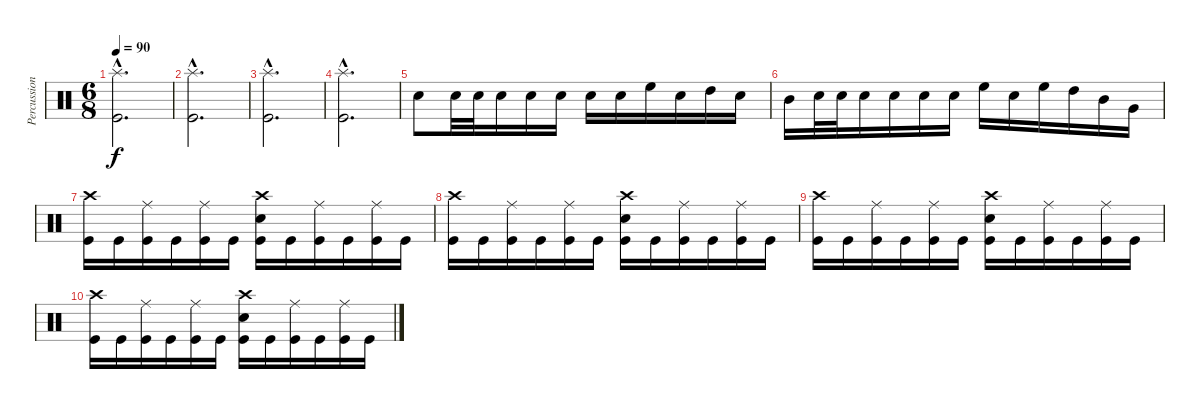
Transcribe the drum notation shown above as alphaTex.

\track ("Percussions" "Percussion") {instrument percussion}
\staff {score}
\articulation defaults
\ts (6 8)
\tempo 90
\clef neutral
\ks c
("Splash (hit)"{hac} "Kick (hit)"{hac}).2{d dy f} |
("Kick (hit)"{hac} "Splash (hit)"{hac}).2{d} |
("Kick (hit)"{hac} "Splash (hit)"{hac}).2{d} |
("Kick (hit)"{hac} "Splash (hit)"{hac}).2{d} |
"Electric Snare (hit)".8 "Electric Snare (hit)".32 "Electric Snare (hit)".32 "Electric Snare (hit)".16 "Electric Snare (hit)".16 "Electric Snare (hit)".16 "Electric Snare (hit)".16 "Electric Snare (hit)".16 "High Floor Tom (hit)".16 "Electric Snare (hit)".16 "High Tom (hit)".16 "Electric Snare (hit)".16 |
"Mid Tom (hit)".16 "Electric Snare (hit)".32 "Electric Snare (hit)".32 "Electric Snare (hit)".16 "Electric Snare (hit)".16 "Electric Snare (hit)".16 "Electric Snare (hit)".16 "High Floor Tom (hit)".16 "Electric Snare (hit)".16 "High Floor Tom (hit)".16 "High Tom (hit)".16 "Mid Tom (hit)".16 "Very Low Tom (hit)".16 |
("Crash high (hit)" "Kick (hit)").16 "Kick (hit)".16 ("Ride (middle)" "Kick (hit)").16 "Kick (hit)".16 ("Ride (middle)" "Kick (hit)").16 "Kick (hit)".16 ("Crash high (hit)" "Electric Snare (hit)" "Kick (hit)").16 "Kick (hit)".16 ("Ride (middle)" "Kick (hit)").16 "Kick (hit)".16 ("Ride (middle)" "Kick (hit)").16 "Kick (hit)".16 |
("Crash high (hit)" "Kick (hit)").16 "Kick (hit)".16 ("Ride (middle)" "Kick (hit)").16 "Kick (hit)".16 ("Ride (middle)" "Kick (hit)").16 "Kick (hit)".16 ("Crash high (hit)" "Electric Snare (hit)" "Kick (hit)").16 "Kick (hit)".16 ("Ride (middle)" "Kick (hit)").16 "Kick (hit)".16 ("Ride (middle)" "Kick (hit)").16 "Kick (hit)".16 |
("Crash high (hit)" "Kick (hit)").16 "Kick (hit)".16 ("Ride (middle)" "Kick (hit)").16 "Kick (hit)".16 ("Ride (middle)" "Kick (hit)").16 "Kick (hit)".16 ("Crash high (hit)" "Electric Snare (hit)" "Kick (hit)").16 "Kick (hit)".16 ("Ride (middle)" "Kick (hit)").16 "Kick (hit)".16 ("Ride (middle)" "Kick (hit)").16 "Kick (hit)".16 |
("Crash high (hit)" "Kick (hit)").16 "Kick (hit)".16 ("Ride (middle)" "Kick (hit)").16 "Kick (hit)".16 ("Ride (middle)" "Kick (hit)").16 "Kick (hit)".16 ("Crash high (hit)" "Electric Snare (hit)" "Kick (hit)").16 "Kick (hit)".16 ("Ride (middle)" "Kick (hit)").16 "Kick (hit)".16 ("Ride (middle)" "Kick (hit)").16 "Kick (hit)".16
